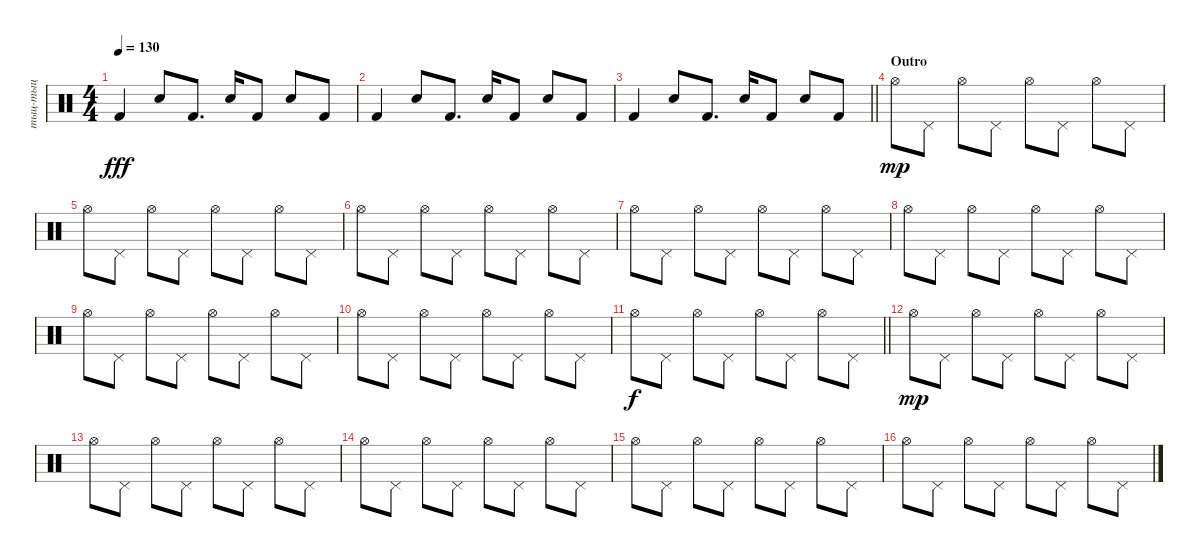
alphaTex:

\track ("тыц-тыц" "тыц-тыц") {instrument percussion}
\staff {score}
\articulation defaults
\ts (4 4)
\tempo 130
\clef neutral
\ks c "Kick (hit) 2".4{dy fff} "Snare (hit) 2".8 "Kick (hit) 2".8{d} "Snare (hit) 2".16 "Kick (hit) 2".8 "Snare (hit) 2".8 "Kick (hit) 2".8
|
"Kick (hit) 2".4 "Snare (hit) 2".8 "Kick (hit) 2".8{d} "Snare (hit) 2".16 "Kick (hit) 2".8 "Snare (hit) 2".8 "Kick (hit) 2".8 |
\barLineRight lightlight "Kick (hit) 2".4 "Snare (hit) 2".8 "Kick (hit) 2".8{d} "Snare (hit) 2".16 "Kick (hit) 2".8 "Snare (hit) 2".8 "Kick (hit) 2".8
|
\section ("" "Outro")
"Hi-Hat (open)".8{dy mp} "Pedal Hi-Hat (hit)".8 "Hi-Hat (open)".8 "Pedal Hi-Hat (hit)".8 "Hi-Hat (open)".8 "Pedal Hi-Hat (hit)".8 "Hi-Hat (open)".8 "Pedal Hi-Hat (hit)".8 |
"Hi-Hat (open)".8 "Pedal Hi-Hat (hit)".8 "Hi-Hat (open)".8 "Pedal Hi-Hat (hit)".8 "Hi-Hat (open)".8 "Pedal Hi-Hat (hit)".8 "Hi-Hat (open)".8 "Pedal Hi-Hat (hit)".8 |
"Hi-Hat (open)".8 "Pedal Hi-Hat (hit)".8 "Hi-Hat (open)".8 "Pedal Hi-Hat (hit)".8 "Hi-Hat (open)".8 "Pedal Hi-Hat (hit)".8 "Hi-Hat (open)".8 "Pedal Hi-Hat (hit)".8 |
"Hi-Hat (open)".8 "Pedal Hi-Hat (hit)".8 "Hi-Hat (open)".8 "Pedal Hi-Hat (hit)".8 "Hi-Hat (open)".8 "Pedal Hi-Hat (hit)".8 "Hi-Hat (open)".8 "Pedal Hi-Hat (hit)".8 |
"Hi-Hat (open)".8 "Pedal Hi-Hat (hit)".8 "Hi-Hat (open)".8 "Pedal Hi-Hat (hit)".8 "Hi-Hat (open)".8 "Pedal Hi-Hat (hit)".8 "Hi-Hat (open)".8 "Pedal Hi-Hat (hit)".8 |
"Hi-Hat (open)".8 "Pedal Hi-Hat (hit)".8 "Hi-Hat (open)".8 "Pedal Hi-Hat (hit)".8 "Hi-Hat (open)".8 "Pedal Hi-Hat (hit)".8 "Hi-Hat (open)".8 "Pedal Hi-Hat (hit)".8 |
"Hi-Hat (open)".8 "Pedal Hi-Hat (hit)".8 "Hi-Hat (open)".8 "Pedal Hi-Hat (hit)".8 "Hi-Hat (open)".8 "Pedal Hi-Hat (hit)".8 "Hi-Hat (open)".8 "Pedal Hi-Hat (hit)".8 |
\barLineRight lightlight "Hi-Hat (open)".8{dy f} "Pedal Hi-Hat (hit)".8 "Hi-Hat (open)".8 "Pedal Hi-Hat (hit)".8 "Hi-Hat (open)".8 "Pedal Hi-Hat (hit)".8 "Hi-Hat (open)".8 "Pedal Hi-Hat (hit)".8
|
"Hi-Hat (open)".8{dy mp} "Pedal Hi-Hat (hit)".8 "Hi-Hat (open)".8 "Pedal Hi-Hat (hit)".8 "Hi-Hat (open)".8 "Pedal Hi-Hat (hit)".8 "Hi-Hat (open)".8 "Pedal Hi-Hat (hit)".8 |
"Hi-Hat (open)".8 "Pedal Hi-Hat (hit)".8 "Hi-Hat (open)".8 "Pedal Hi-Hat (hit)".8 "Hi-Hat (open)".8 "Pedal Hi-Hat (hit)".8 "Hi-Hat (open)".8 "Pedal Hi-Hat (hit)".8 |
"Hi-Hat (open)".8 "Pedal Hi-Hat (hit)".8 "Hi-Hat (open)".8 "Pedal Hi-Hat (hit)".8 "Hi-Hat (open)".8 "Pedal Hi-Hat (hit)".8 "Hi-Hat (open)".8 "Pedal Hi-Hat (hit)".8 |
"Hi-Hat (open)".8 "Pedal Hi-Hat (hit)".8 "Hi-Hat (open)".8 "Pedal Hi-Hat (hit)".8 "Hi-Hat (open)".8 "Pedal Hi-Hat (hit)".8 "Hi-Hat (open)".8 "Pedal Hi-Hat (hit)".8 |
"Hi-Hat (open)".8 "Pedal Hi-Hat (hit)".8 "Hi-Hat (open)".8 "Pedal Hi-Hat (hit)".8 "Hi-Hat (open)".8 "Pedal Hi-Hat (hit)".8 "Hi-Hat (open)".8 "Pedal Hi-Hat (hit)".8
